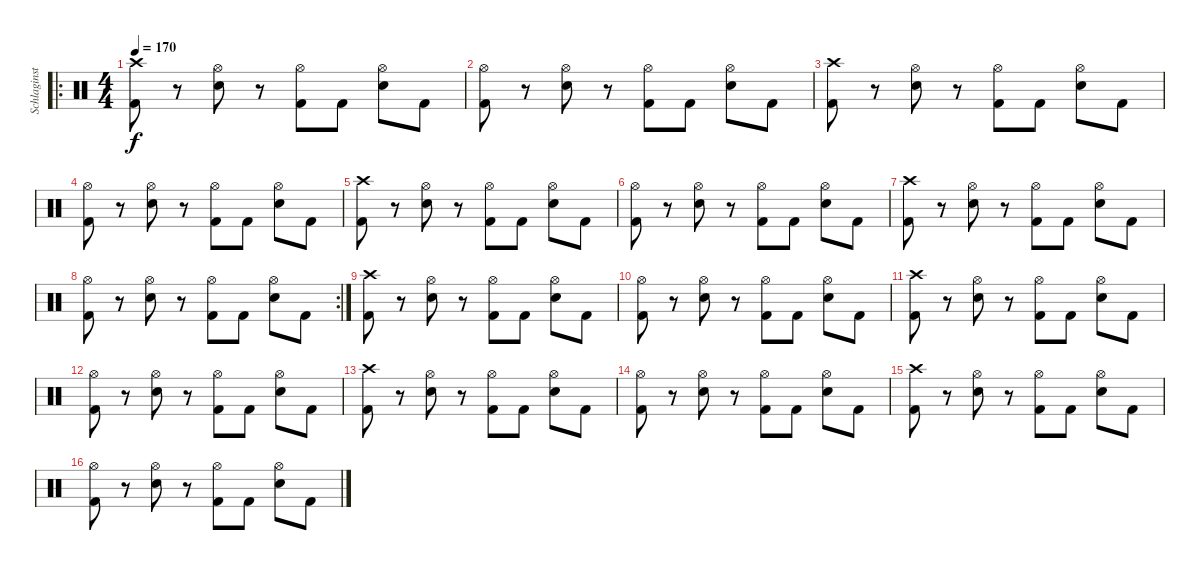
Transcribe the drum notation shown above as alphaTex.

\track ("Schlaginstrumente - Auswahl" "Schlaginst") {instrument percussion}
\staff {score}
\articulation defaults
\ro
\ts (4 4)
\tempo 170
\clef neutral
\ks c
("Crash high (hit)" "Kick (hit) 2").8{dy f} r.8 ("Hi-Hat (open)" "Snare (hit) 2").8 r.8 ("Hi-Hat (open)" "Kick (hit) 2").8 "Kick (hit) 2".8 ("Hi-Hat (open)" "Snare (hit) 2").8 "Kick (hit) 2".8 |
("Hi-Hat (open)" "Kick (hit) 2").8 r.8 ("Hi-Hat (open)" "Snare (hit) 2").8 r.8 ("Hi-Hat (open)" "Kick (hit) 2").8 "Kick (hit) 2".8 ("Hi-Hat (open)" "Snare (hit) 2").8 "Kick (hit) 2".8 |
("Crash high (hit)" "Kick (hit) 2").8 r.8 ("Hi-Hat (open)" "Snare (hit) 2").8 r.8 ("Hi-Hat (open)" "Kick (hit) 2").8 "Kick (hit) 2".8 ("Hi-Hat (open)" "Snare (hit) 2").8 "Kick (hit) 2".8 |
("Hi-Hat (open)" "Kick (hit) 2").8 r.8 ("Hi-Hat (open)" "Snare (hit) 2").8 r.8 ("Hi-Hat (open)" "Kick (hit) 2").8 "Kick (hit) 2".8 ("Hi-Hat (open)" "Snare (hit) 2").8 "Kick (hit) 2".8 |
("Crash high (hit)" "Kick (hit) 2").8 r.8 ("Hi-Hat (open)" "Snare (hit) 2").8 r.8 ("Hi-Hat (open)" "Kick (hit) 2").8 "Kick (hit) 2".8 ("Hi-Hat (open)" "Snare (hit) 2").8 "Kick (hit) 2".8 |
("Hi-Hat (open)" "Kick (hit) 2").8 r.8 ("Hi-Hat (open)" "Snare (hit) 2").8 r.8 ("Hi-Hat (open)" "Kick (hit) 2").8 "Kick (hit) 2".8 ("Hi-Hat (open)" "Snare (hit) 2").8 "Kick (hit) 2".8 |
("Crash high (hit)" "Kick (hit) 2").8 r.8 ("Hi-Hat (open)" "Snare (hit) 2").8 r.8 ("Hi-Hat (open)" "Kick (hit) 2").8 "Kick (hit) 2".8 ("Hi-Hat (open)" "Snare (hit) 2").8 "Kick (hit) 2".8 |
\rc 2
("Hi-Hat (open)" "Kick (hit) 2").8 r.8 ("Hi-Hat (open)" "Snare (hit) 2").8 r.8 ("Hi-Hat (open)" "Kick (hit) 2").8 "Kick (hit) 2".8 ("Hi-Hat (open)" "Snare (hit) 2").8 "Kick (hit) 2".8 |
("Crash high (hit)" "Kick (hit) 2").8 r.8 ("Hi-Hat (open)" "Snare (hit) 2").8 r.8 ("Hi-Hat (open)" "Kick (hit) 2").8 "Kick (hit) 2".8 ("Hi-Hat (open)" "Snare (hit) 2").8 "Kick (hit) 2".8 |
("Hi-Hat (open)" "Kick (hit) 2").8 r.8 ("Hi-Hat (open)" "Snare (hit) 2").8 r.8 ("Hi-Hat (open)" "Kick (hit) 2").8 "Kick (hit) 2".8 ("Hi-Hat (open)" "Snare (hit) 2").8 "Kick (hit) 2".8 |
("Crash high (hit)" "Kick (hit) 2").8 r.8 ("Hi-Hat (open)" "Snare (hit) 2").8 r.8 ("Hi-Hat (open)" "Kick (hit) 2").8 "Kick (hit) 2".8 ("Hi-Hat (open)" "Snare (hit) 2").8 "Kick (hit) 2".8 |
("Hi-Hat (open)" "Kick (hit) 2").8 r.8 ("Hi-Hat (open)" "Snare (hit) 2").8 r.8 ("Hi-Hat (open)" "Kick (hit) 2").8 "Kick (hit) 2".8 ("Hi-Hat (open)" "Snare (hit) 2").8 "Kick (hit) 2".8 |
("Crash high (hit)" "Kick (hit) 2").8 r.8 ("Hi-Hat (open)" "Snare (hit) 2").8 r.8 ("Hi-Hat (open)" "Kick (hit) 2").8 "Kick (hit) 2".8 ("Hi-Hat (open)" "Snare (hit) 2").8 "Kick (hit) 2".8 |
("Hi-Hat (open)" "Kick (hit) 2").8 r.8 ("Hi-Hat (open)" "Snare (hit) 2").8 r.8 ("Hi-Hat (open)" "Kick (hit) 2").8 "Kick (hit) 2".8 ("Hi-Hat (open)" "Snare (hit) 2").8 "Kick (hit) 2".8 |
("Crash high (hit)" "Kick (hit) 2").8 r.8 ("Hi-Hat (open)" "Snare (hit) 2").8 r.8 ("Hi-Hat (open)" "Kick (hit) 2").8 "Kick (hit) 2".8 ("Hi-Hat (open)" "Snare (hit) 2").8 "Kick (hit) 2".8 |
("Hi-Hat (open)" "Kick (hit) 2").8 r.8 ("Hi-Hat (open)" "Snare (hit) 2").8 r.8 ("Hi-Hat (open)" "Kick (hit) 2").8 "Kick (hit) 2".8 ("Hi-Hat (open)" "Snare (hit) 2").8 "Kick (hit) 2".8
